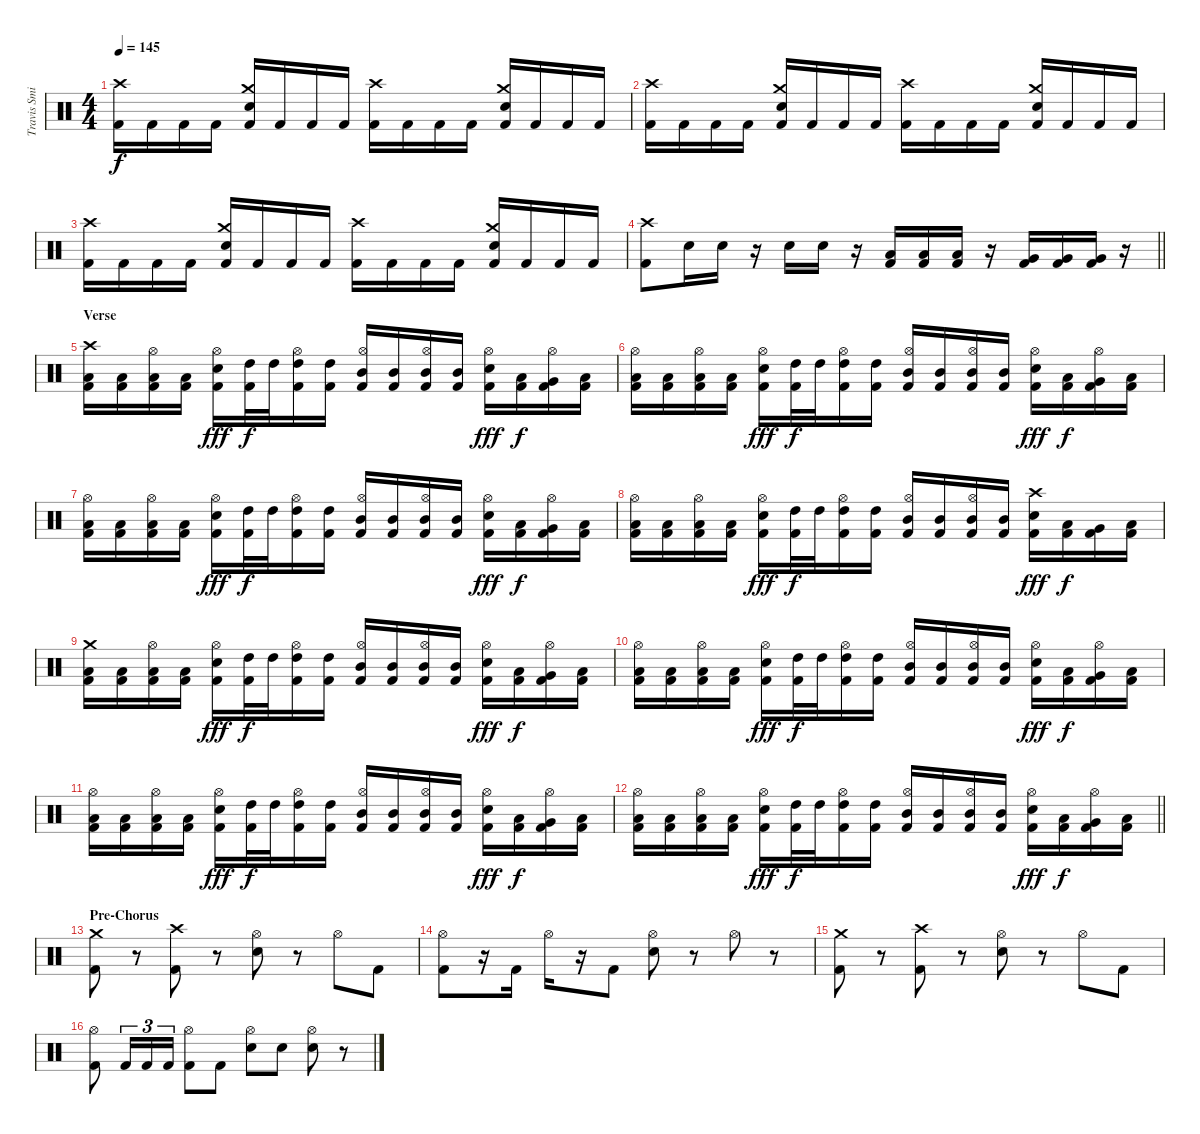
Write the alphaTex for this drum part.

\track ("Travis Smith" "Travis Smi") {instrument percussion}
\staff {score}
\articulation defaults
\ts (4 4)
\tempo 145
\clef neutral
\ks c
("Crash high (hit)" "Kick (hit) 2").16{dy f} "Kick (hit) 2".16 "Kick (hit) 2".16 "Kick (hit) 2".16 ("Crash medium (hit)" "Electric Snare (hit)" "Kick (hit) 2").16 "Kick (hit) 2".16 "Kick (hit) 2".16 "Kick (hit) 2".16 ("Crash high (hit)" "Kick (hit) 2").16 "Kick (hit) 2".16 "Kick (hit) 2".16 "Kick (hit) 2".16 ("Crash medium (hit)" "Electric Snare (hit)" "Kick (hit) 2").16 "Kick (hit) 2".16 "Kick (hit) 2".16 "Kick (hit) 2".16 |
("Crash high (hit)" "Kick (hit) 2").16 "Kick (hit) 2".16 "Kick (hit) 2".16 "Kick (hit) 2".16 ("Crash medium (hit)" "Electric Snare (hit)" "Kick (hit) 2").16 "Kick (hit) 2".16 "Kick (hit) 2".16 "Kick (hit) 2".16 ("Crash high (hit)" "Kick (hit) 2").16 "Kick (hit) 2".16 "Kick (hit) 2".16 "Kick (hit) 2".16 ("Crash medium (hit)" "Electric Snare (hit)" "Kick (hit) 2").16 "Kick (hit) 2".16 "Kick (hit) 2".16 "Kick (hit) 2".16 |
("Crash high (hit)" "Kick (hit) 2").16 "Kick (hit) 2".16 "Kick (hit) 2".16 "Kick (hit) 2".16 ("Crash medium (hit)" "Electric Snare (hit)" "Kick (hit) 2").16 "Kick (hit) 2".16 "Kick (hit) 2".16 "Kick (hit) 2".16 ("Crash high (hit)" "Kick (hit) 2").16 "Kick (hit) 2".16 "Kick (hit) 2".16 "Kick (hit) 2".16 ("Crash medium (hit)" "Electric Snare (hit)" "Kick (hit) 2").16 "Kick (hit) 2".16 "Kick (hit) 2".16 "Kick (hit) 2".16 |
\barLineRight lightlight
("Crash high (hit)" "Kick (hit) 2").8 "Electric Snare (hit)".16 "Electric Snare (hit)".16 r.16 "Electric Snare (hit)".16 "Electric Snare (hit)".16 r.16 ("Low Tom (hit)" "Kick (hit) 2").16 ("Low Tom (hit)" "Kick (hit) 2").16 ("Low Tom (hit)" "Kick (hit) 2").16 r.16 ("Very Low Tom (hit)" "Kick (hit) 2").16 ("Very Low Tom (hit)" "Kick (hit) 2").16 ("Very Low Tom (hit)" "Kick (hit) 2").16 r.16 |
\section ("" "Verse")
("Crash high (hit)" "Low Tom (hit)" "Kick (hit) 2").16 ("Low Tom (hit)" "Kick (hit) 2").16 ("Hi-Hat (open)" "Low Tom (hit)" "Kick (hit) 2").16 ("Low Tom (hit)" "Kick (hit) 2").16 ("Hi-Hat (open)" "Electric Snare (hit)" "Kick (hit) 2").16{dy fff} ("High Tom (hit)" "Kick (hit) 2").32{dy f} "High Tom (hit)".32 ("Hi-Hat (open)" "High Tom (hit)" "Kick (hit) 2").16 ("High Tom (hit)" "Kick (hit) 2").16 ("Hi-Hat (open)" "Mid Tom (hit)" "Kick (hit) 2").16 ("Mid Tom (hit)" "Kick (hit) 2").16 ("Hi-Hat (open)" "Mid Tom (hit)" "Kick (hit) 2").16 ("Mid Tom (hit)" "Kick (hit) 2").16 ("Hi-Hat (open)" "Electric Snare (hit)" "Kick (hit) 2").16{dy fff} ("Low Tom (hit)" "Kick (hit) 2").16{dy f} ("Hi-Hat (open)" "Very Low Tom (hit)" "Kick (hit) 2").16 ("Low Floor Tom (hit)" "Kick (hit) 2").16 |
("Hi-Hat (open)" "Low Tom (hit)" "Kick (hit) 2").16 ("Low Tom (hit)" "Kick (hit) 2").16 ("Hi-Hat (open)" "Low Tom (hit)" "Kick (hit) 2").16 ("Low Tom (hit)" "Kick (hit) 2").16 ("Hi-Hat (open)" "Electric Snare (hit)" "Kick (hit) 2").16{dy fff} ("High Tom (hit)" "Kick (hit) 2").32{dy f} "High Tom (hit)".32 ("Hi-Hat (open)" "High Tom (hit)" "Kick (hit) 2").16 ("High Tom (hit)" "Kick (hit) 2").16 ("Hi-Hat (open)" "Mid Tom (hit)" "Kick (hit) 2").16 ("Mid Tom (hit)" "Kick (hit) 2").16 ("Hi-Hat (open)" "Mid Tom (hit)" "Kick (hit) 2").16 ("Mid Tom (hit)" "Kick (hit) 2").16 ("Hi-Hat (open)" "Electric Snare (hit)" "Kick (hit) 2").16{dy fff} ("Low Tom (hit)" "Kick (hit) 2").16{dy f} ("Hi-Hat (open)" "Very Low Tom (hit)" "Kick (hit) 2").16 ("Low Floor Tom (hit)" "Kick (hit) 2").16 |
("Hi-Hat (open)" "Low Tom (hit)" "Kick (hit) 2").16 ("Low Tom (hit)" "Kick (hit) 2").16 ("Hi-Hat (open)" "Low Tom (hit)" "Kick (hit) 2").16 ("Low Tom (hit)" "Kick (hit) 2").16 ("Hi-Hat (open)" "Electric Snare (hit)" "Kick (hit) 2").16{dy fff} ("High Tom (hit)" "Kick (hit) 2").32{dy f} "High Tom (hit)".32 ("Hi-Hat (open)" "High Tom (hit)" "Kick (hit) 2").16 ("High Tom (hit)" "Kick (hit) 2").16 ("Hi-Hat (open)" "Mid Tom (hit)" "Kick (hit) 2").16 ("Mid Tom (hit)" "Kick (hit) 2").16 ("Hi-Hat (open)" "Mid Tom (hit)" "Kick (hit) 2").16 ("Mid Tom (hit)" "Kick (hit) 2").16 ("Hi-Hat (open)" "Electric Snare (hit)" "Kick (hit) 2").16{dy fff} ("Low Tom (hit)" "Kick (hit) 2").16{dy f} ("Hi-Hat (open)" "Very Low Tom (hit)" "Kick (hit) 2").16 ("Low Floor Tom (hit)" "Kick (hit) 2").16 |
("Hi-Hat (open)" "Low Tom (hit)" "Kick (hit) 2").16 ("Low Tom (hit)" "Kick (hit) 2").16 ("Hi-Hat (open)" "Low Tom (hit)" "Kick (hit) 2").16 ("Low Tom (hit)" "Kick (hit) 2").16 ("Hi-Hat (open)" "Electric Snare (hit)" "Kick (hit) 2").16{dy fff} ("High Tom (hit)" "Kick (hit) 2").32{dy f} "High Tom (hit)".32 ("Hi-Hat (open)" "High Tom (hit)" "Kick (hit) 2").16 ("High Tom (hit)" "Kick (hit) 2").16 ("Hi-Hat (open)" "Mid Tom (hit)" "Kick (hit) 2").16 ("Mid Tom (hit)" "Kick (hit) 2").16 ("Hi-Hat (open)" "Mid Tom (hit)" "Kick (hit) 2").16 ("Mid Tom (hit)" "Kick (hit) 2").16 ("Crash high (hit)" "Electric Snare (hit)" "Kick (hit) 2").16{dy fff} ("Low Tom (hit)" "Kick (hit) 2").16{dy f} ("Very Low Tom (hit)" "Kick (hit) 2").16 ("Low Floor Tom (hit)" "Kick (hit) 2").16 |
("Crash medium (hit)" "Low Tom (hit)" "Kick (hit) 2").16 ("Low Tom (hit)" "Kick (hit) 2").16 ("Hi-Hat (open)" "Low Tom (hit)" "Kick (hit) 2").16 ("Low Tom (hit)" "Kick (hit) 2").16 ("Hi-Hat (open)" "Electric Snare (hit)" "Kick (hit) 2").16{dy fff} ("High Tom (hit)" "Kick (hit) 2").32{dy f} "High Tom (hit)".32 ("Hi-Hat (open)" "High Tom (hit)" "Kick (hit) 2").16 ("High Tom (hit)" "Kick (hit) 2").16 ("Hi-Hat (open)" "Mid Tom (hit)" "Kick (hit) 2").16 ("Mid Tom (hit)" "Kick (hit) 2").16 ("Hi-Hat (open)" "Mid Tom (hit)" "Kick (hit) 2").16 ("Mid Tom (hit)" "Kick (hit) 2").16 ("Hi-Hat (open)" "Electric Snare (hit)" "Kick (hit) 2").16{dy fff} ("Low Tom (hit)" "Kick (hit) 2").16{dy f} ("Hi-Hat (open)" "Very Low Tom (hit)" "Kick (hit) 2").16 ("Low Floor Tom (hit)" "Kick (hit) 2").16 |
("Hi-Hat (open)" "Low Tom (hit)" "Kick (hit) 2").16 ("Low Tom (hit)" "Kick (hit) 2").16 ("Hi-Hat (open)" "Low Tom (hit)" "Kick (hit) 2").16 ("Low Tom (hit)" "Kick (hit) 2").16 ("Hi-Hat (open)" "Electric Snare (hit)" "Kick (hit) 2").16{dy fff} ("High Tom (hit)" "Kick (hit) 2").32{dy f} "High Tom (hit)".32 ("Hi-Hat (open)" "High Tom (hit)" "Kick (hit) 2").16 ("High Tom (hit)" "Kick (hit) 2").16 ("Hi-Hat (open)" "Mid Tom (hit)" "Kick (hit) 2").16 ("Mid Tom (hit)" "Kick (hit) 2").16 ("Hi-Hat (open)" "Mid Tom (hit)" "Kick (hit) 2").16 ("Mid Tom (hit)" "Kick (hit) 2").16 ("Hi-Hat (open)" "Electric Snare (hit)" "Kick (hit) 2").16{dy fff} ("Low Tom (hit)" "Kick (hit) 2").16{dy f} ("Hi-Hat (open)" "Very Low Tom (hit)" "Kick (hit) 2").16 ("Low Floor Tom (hit)" "Kick (hit) 2").16 |
("Hi-Hat (open)" "Low Tom (hit)" "Kick (hit) 2").16 ("Low Tom (hit)" "Kick (hit) 2").16 ("Hi-Hat (open)" "Low Tom (hit)" "Kick (hit) 2").16 ("Low Tom (hit)" "Kick (hit) 2").16 ("Hi-Hat (open)" "Electric Snare (hit)" "Kick (hit) 2").16{dy fff} ("High Tom (hit)" "Kick (hit) 2").32{dy f} "High Tom (hit)".32 ("Hi-Hat (open)" "High Tom (hit)" "Kick (hit) 2").16 ("High Tom (hit)" "Kick (hit) 2").16 ("Hi-Hat (open)" "Mid Tom (hit)" "Kick (hit) 2").16 ("Mid Tom (hit)" "Kick (hit) 2").16 ("Hi-Hat (open)" "Mid Tom (hit)" "Kick (hit) 2").16 ("Mid Tom (hit)" "Kick (hit) 2").16 ("Hi-Hat (open)" "Electric Snare (hit)" "Kick (hit) 2").16{dy fff} ("Low Tom (hit)" "Kick (hit) 2").16{dy f} ("Hi-Hat (open)" "Very Low Tom (hit)" "Kick (hit) 2").16 ("Low Floor Tom (hit)" "Kick (hit) 2").16 |
\barLineRight lightlight
("Hi-Hat (open)" "Low Tom (hit)" "Kick (hit) 2").16 ("Low Tom (hit)" "Kick (hit) 2").16 ("Hi-Hat (open)" "Low Tom (hit)" "Kick (hit) 2").16 ("Low Tom (hit)" "Kick (hit) 2").16 ("Hi-Hat (open)" "Electric Snare (hit)" "Kick (hit) 2").16{dy fff} ("High Tom (hit)" "Kick (hit) 2").32{dy f} "High Tom (hit)".32 ("Hi-Hat (open)" "High Tom (hit)" "Kick (hit) 2").16 ("High Tom (hit)" "Kick (hit) 2").16 ("Hi-Hat (open)" "Mid Tom (hit)" "Kick (hit) 2").16 ("Mid Tom (hit)" "Kick (hit) 2").16 ("Hi-Hat (open)" "Mid Tom (hit)" "Kick (hit) 2").16 ("Mid Tom (hit)" "Kick (hit) 2").16 ("Hi-Hat (open)" "Electric Snare (hit)" "Kick (hit) 2").16{dy fff} ("Low Tom (hit)" "Kick (hit) 2").16{dy f} ("Hi-Hat (open)" "Very Low Tom (hit)" "Kick (hit) 2").16 ("Low Floor Tom (hit)" "Kick (hit) 2").16 |
\section ("" "Pre-Chorus")
("Crash medium (hit)" "Kick (hit) 2").8 r.8 ("Crash high (hit)" "Kick (hit) 2").8 r.8 ("Hi-Hat (open)" "Electric Snare (hit)").8 r.8 "Hi-Hat (open)".8 "Kick (hit) 2".8 |
("Hi-Hat (open)" "Kick (hit) 2").8 r.16 "Kick (hit) 2".16 "Hi-Hat (open)".16 r.16 "Kick (hit) 2".8 ("Hi-Hat (open)" "Electric Snare (hit)").8 r.8 "Hi-Hat (open)".8 r.8 |
("Crash medium (hit)" "Kick (hit) 2").8 r.8 ("Crash high (hit)" "Kick (hit) 2").8 r.8 ("Hi-Hat (open)" "Electric Snare (hit)").8 r.8 "Hi-Hat (open)".8 "Kick (hit) 2".8 |
("Hi-Hat (open)" "Kick (hit) 2").8 "Kick (hit) 2".16{tu (3 2)} "Kick (hit) 2".16{tu (3 2)} "Kick (hit) 2".16{tu (3 2)} ("Hi-Hat (open)" "Kick (hit) 2").8 "Kick (hit) 2".8 ("Hi-Hat (open)" "Electric Snare (hit)").8 "Electric Snare (hit)".8 ("Hi-Hat (open)" "Electric Snare (hit)").8 r.8
